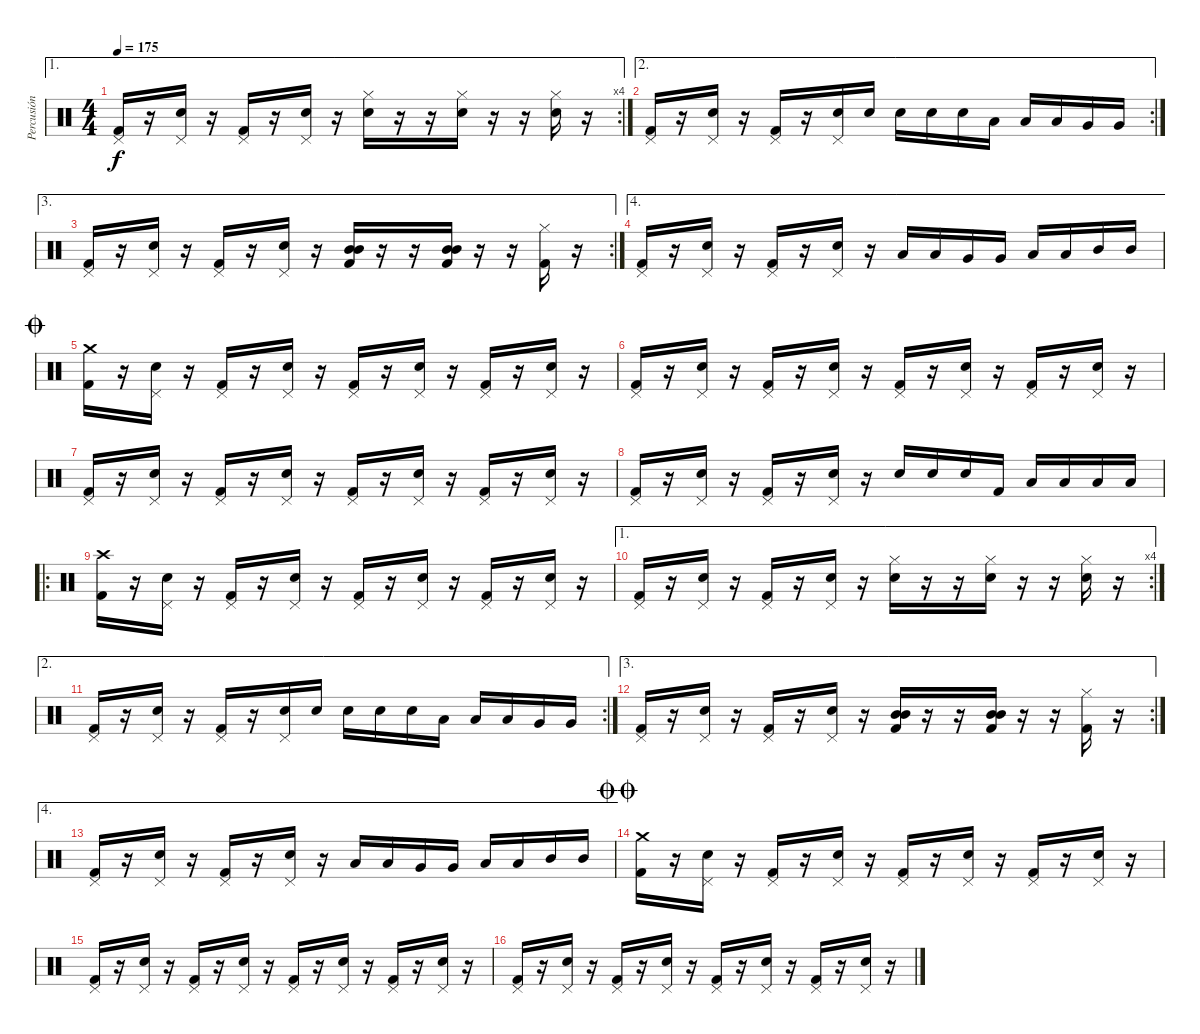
\track ("Percusión" "Percusión") {solo instrument percussion}
\staff {score}
\articulation defaults
\ae 1
\rc 4
\ts (4 4)
\tempo 175
\clef neutral
\ks c
("Kick (hit) 2" "Pedal Hi-Hat (hit)").16{dy f} r.16 ("Electric Snare (hit)" "Pedal Hi-Hat (hit)").16 r.16 ("Kick (hit) 2" "Pedal Hi-Hat (hit)").16 r.16 ("Electric Snare (hit)" "Pedal Hi-Hat (hit)").16 r.16 ("Electric Snare (hit)" "Hi-Hat (closed)").16 r.16 r.16 ("Electric Snare (hit)" "Hi-Hat (closed)").16 r.16 r.16 ("Electric Snare (hit)" "Hi-Hat (closed)").16 r.16 |
\ae 2
\rc 2
("Kick (hit) 2" "Pedal Hi-Hat (hit)").16 r.16 ("Electric Snare (hit)" "Pedal Hi-Hat (hit)").16 r.16 ("Kick (hit) 2" "Pedal Hi-Hat (hit)").16 r.16 ("Electric Snare (hit)" "Pedal Hi-Hat (hit)").16 "Electric Snare (hit)".16 "Electric Snare (hit)".16 "Electric Snare (hit)".16 "Electric Snare (hit)".16 "Low Floor Tom (hit)".16 "Low Floor Tom (hit)".16 "Low Floor Tom (hit)".16 "Very Low Tom (hit)".16 "Very Low Tom (hit)".16 |
\ae 3
\rc 2
("Kick (hit) 2" "Pedal Hi-Hat (hit)").16 r.16 ("Electric Snare (hit)" "Pedal Hi-Hat (hit)").16 r.16 ("Kick (hit) 2" "Pedal Hi-Hat (hit)").16 r.16 ("Electric Snare (hit)" "Pedal Hi-Hat (hit)").16 r.16 ("Mid Tom (hit)" "Mid Tom (hit)" "Kick (hit) 2").16 r.16 r.16 ("Mid Tom (hit)" "Mid Tom (hit)" "Kick (hit) 2").16 r.16 r.16 ("Kick (hit) 2" "Hi-Hat (closed)").16 r.16 |
\ae 4
("Kick (hit) 2" "Pedal Hi-Hat (hit)").16 r.16 ("Electric Snare (hit)" "Pedal Hi-Hat (hit)").16 r.16 ("Kick (hit) 2" "Pedal Hi-Hat (hit)").16 r.16 ("Electric Snare (hit)" "Pedal Hi-Hat (hit)").16 r.16 "Low Floor Tom (hit)".16 "Low Floor Tom (hit)".16 "Very Low Tom (hit)".16 "Very Low Tom (hit)".16 "Low Tom (hit)".16 "Low Tom (hit)".16 "Mid Tom (hit)".16 "Mid Tom (hit)".16 |
\jump coda
("Crash medium (hit)" "Kick (hit) 2").16 r.16 ("Electric Snare (hit)" "Pedal Hi-Hat (hit)").16 r.16 ("Kick (hit) 2" "Pedal Hi-Hat (hit)").16 r.16 ("Electric Snare (hit)" "Pedal Hi-Hat (hit)").16 r.16 ("Kick (hit) 2" "Pedal Hi-Hat (hit)").16 r.16 ("Electric Snare (hit)" "Pedal Hi-Hat (hit)").16 r.16 ("Kick (hit) 2" "Pedal Hi-Hat (hit)").16 r.16 ("Electric Snare (hit)" "Pedal Hi-Hat (hit)").16 r.16 |
("Kick (hit) 2" "Pedal Hi-Hat (hit)").16 r.16 ("Electric Snare (hit)" "Pedal Hi-Hat (hit)").16 r.16 ("Kick (hit) 2" "Pedal Hi-Hat (hit)").16 r.16 ("Electric Snare (hit)" "Pedal Hi-Hat (hit)").16 r.16 ("Kick (hit) 2" "Pedal Hi-Hat (hit)").16 r.16 ("Electric Snare (hit)" "Pedal Hi-Hat (hit)").16 r.16 ("Kick (hit) 2" "Pedal Hi-Hat (hit)").16 r.16 ("Electric Snare (hit)" "Pedal Hi-Hat (hit)").16 r.16 |
("Kick (hit) 2" "Pedal Hi-Hat (hit)").16 r.16 ("Electric Snare (hit)" "Pedal Hi-Hat (hit)").16 r.16 ("Kick (hit) 2" "Pedal Hi-Hat (hit)").16 r.16 ("Electric Snare (hit)" "Pedal Hi-Hat (hit)").16 r.16 ("Kick (hit) 2" "Pedal Hi-Hat (hit)").16 r.16 ("Electric Snare (hit)" "Pedal Hi-Hat (hit)").16 r.16 ("Kick (hit) 2" "Pedal Hi-Hat (hit)").16 r.16 ("Electric Snare (hit)" "Pedal Hi-Hat (hit)").16 r.16 |
("Kick (hit) 2" "Pedal Hi-Hat (hit)").16 r.16 ("Electric Snare (hit)" "Pedal Hi-Hat (hit)").16 r.16 ("Kick (hit) 2" "Pedal Hi-Hat (hit)").16 r.16 ("Electric Snare (hit)" "Pedal Hi-Hat (hit)").16 r.16 "Electric Snare (hit)".16 "Electric Snare (hit)".16 "Electric Snare (hit)".16 "Kick (hit) 2".16 "Low Floor Tom (hit)".16 "Low Floor Tom (hit)".16 "Low Floor Tom (hit)".16 "Low Floor Tom (hit)".16 |
\ro
("Kick (hit) 2" "Crash high (hit)").16 r.16 ("Electric Snare (hit)" "Pedal Hi-Hat (hit)").16 r.16 ("Kick (hit) 2" "Pedal Hi-Hat (hit)").16 r.16 ("Electric Snare (hit)" "Pedal Hi-Hat (hit)").16 r.16 ("Kick (hit) 2" "Pedal Hi-Hat (hit)").16 r.16 ("Electric Snare (hit)" "Pedal Hi-Hat (hit)").16 r.16 ("Kick (hit) 2" "Pedal Hi-Hat (hit)").16 r.16 ("Electric Snare (hit)" "Pedal Hi-Hat (hit)").16 r.16 |
\ae 1
\rc 4
("Kick (hit) 2" "Pedal Hi-Hat (hit)").16 r.16 ("Electric Snare (hit)" "Pedal Hi-Hat (hit)").16 r.16 ("Kick (hit) 2" "Pedal Hi-Hat (hit)").16 r.16 ("Electric Snare (hit)" "Pedal Hi-Hat (hit)").16 r.16 ("Electric Snare (hit)" "Hi-Hat (closed)").16 r.16 r.16 ("Electric Snare (hit)" "Hi-Hat (closed)").16 r.16 r.16 ("Electric Snare (hit)" "Hi-Hat (closed)").16 r.16 |
\ae 2
\rc 2
("Kick (hit) 2" "Pedal Hi-Hat (hit)").16 r.16 ("Electric Snare (hit)" "Pedal Hi-Hat (hit)").16 r.16 ("Kick (hit) 2" "Pedal Hi-Hat (hit)").16 r.16 ("Electric Snare (hit)" "Pedal Hi-Hat (hit)").16 "Electric Snare (hit)".16 "Electric Snare (hit)".16 "Electric Snare (hit)".16 "Electric Snare (hit)".16 "Low Floor Tom (hit)".16 "Low Floor Tom (hit)".16 "Low Floor Tom (hit)".16 "Very Low Tom (hit)".16 "Very Low Tom (hit)".16 |
\ae 3
\rc 2
("Kick (hit) 2" "Pedal Hi-Hat (hit)").16 r.16 ("Electric Snare (hit)" "Pedal Hi-Hat (hit)").16 r.16 ("Kick (hit) 2" "Pedal Hi-Hat (hit)").16 r.16 ("Electric Snare (hit)" "Pedal Hi-Hat (hit)").16 r.16 ("Mid Tom (hit)" "Mid Tom (hit)" "Kick (hit) 2").16 r.16 r.16 ("Mid Tom (hit)" "Mid Tom (hit)" "Kick (hit) 2").16 r.16 r.16 ("Kick (hit) 2" "Hi-Hat (closed)").16 r.16 |
\ae 4
("Kick (hit) 2" "Pedal Hi-Hat (hit)").16 r.16 ("Electric Snare (hit)" "Pedal Hi-Hat (hit)").16 r.16 ("Kick (hit) 2" "Pedal Hi-Hat (hit)").16 r.16 ("Electric Snare (hit)" "Pedal Hi-Hat (hit)").16 r.16 "Low Floor Tom (hit)".16 "Low Floor Tom (hit)".16 "Very Low Tom (hit)".16 "Very Low Tom (hit)".16 "Low Tom (hit)".16 "Low Tom (hit)".16 "Mid Tom (hit)".16 "Mid Tom (hit)".16 |
\jump doublecoda
("Crash medium (hit)" "Kick (hit) 2").16 r.16 ("Electric Snare (hit)" "Pedal Hi-Hat (hit)").16 r.16 ("Kick (hit) 2" "Pedal Hi-Hat (hit)").16 r.16 ("Electric Snare (hit)" "Pedal Hi-Hat (hit)").16 r.16 ("Kick (hit) 2" "Pedal Hi-Hat (hit)").16 r.16 ("Electric Snare (hit)" "Pedal Hi-Hat (hit)").16 r.16 ("Kick (hit) 2" "Pedal Hi-Hat (hit)").16 r.16 ("Electric Snare (hit)" "Pedal Hi-Hat (hit)").16 r.16 |
("Kick (hit) 2" "Pedal Hi-Hat (hit)").16 r.16 ("Electric Snare (hit)" "Pedal Hi-Hat (hit)").16 r.16 ("Kick (hit) 2" "Pedal Hi-Hat (hit)").16 r.16 ("Electric Snare (hit)" "Pedal Hi-Hat (hit)").16 r.16 ("Kick (hit) 2" "Pedal Hi-Hat (hit)").16 r.16 ("Electric Snare (hit)" "Pedal Hi-Hat (hit)").16 r.16 ("Kick (hit) 2" "Pedal Hi-Hat (hit)").16 r.16 ("Electric Snare (hit)" "Pedal Hi-Hat (hit)").16 r.16 |
("Kick (hit) 2" "Pedal Hi-Hat (hit)").16 r.16 ("Electric Snare (hit)" "Pedal Hi-Hat (hit)").16 r.16 ("Kick (hit) 2" "Pedal Hi-Hat (hit)").16 r.16 ("Electric Snare (hit)" "Pedal Hi-Hat (hit)").16 r.16 ("Kick (hit) 2" "Pedal Hi-Hat (hit)").16 r.16 ("Electric Snare (hit)" "Pedal Hi-Hat (hit)").16 r.16 ("Kick (hit) 2" "Pedal Hi-Hat (hit)").16 r.16 ("Electric Snare (hit)" "Pedal Hi-Hat (hit)").16 r.16
